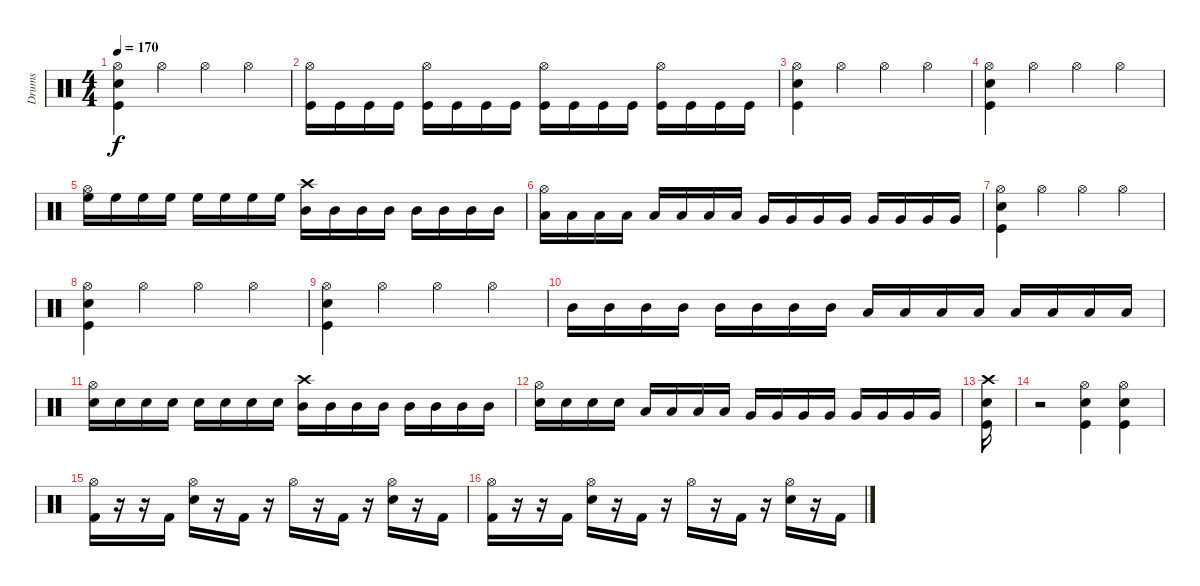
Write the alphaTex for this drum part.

\track ("Drums" "Drums") {instrument percussion}
\staff {score}
\articulation defaults
\ts (4 4)
\tempo 170
\clef neutral
\ks c
("Hi-Hat (open)" "Electric Snare (hit)" "Kick (hit)").4{dy f} "Hi-Hat (open)".4 "Hi-Hat (open)".4 "Hi-Hat (open)".4 |
("Hi-Hat (open)" "Kick (hit)").16 "Kick (hit)".16 "Kick (hit)".16 "Kick (hit)".16 ("Hi-Hat (open)" "Kick (hit)").16 "Kick (hit)".16 "Kick (hit)".16 "Kick (hit)".16 ("Hi-Hat (open)" "Kick (hit)").16 "Kick (hit)".16 "Kick (hit)".16 "Kick (hit)".16 ("Hi-Hat (open)" "Kick (hit)").16 "Kick (hit)".16 "Kick (hit)".16 "Kick (hit)".16 |
("Hi-Hat (open)" "Electric Snare (hit)" "Kick (hit)").4 "Hi-Hat (open)".4 "Hi-Hat (open)".4 "Hi-Hat (open)".4 |
("Hi-Hat (open)" "Electric Snare (hit)" "Kick (hit)").4 "Hi-Hat (open)".4 "Hi-Hat (open)".4 "Hi-Hat (open)".4 |
("Hi-Hat (open)" "High Floor Tom (hit)").16 "High Floor Tom (hit)".16 "High Floor Tom (hit)".16 "High Floor Tom (hit)".16 "High Floor Tom (hit)".16 "High Floor Tom (hit)".16 "High Floor Tom (hit)".16 "High Floor Tom (hit)".16 ("Crash high (hit)" "Mid Tom (hit)").16 "Mid Tom (hit)".16 "Mid Tom (hit)".16 "Mid Tom (hit)".16 "Mid Tom (hit)".16 "Mid Tom (hit)".16 "Mid Tom (hit)".16 "Mid Tom (hit)".16 |
("Hi-Hat (open)" "Low Tom (hit)").16 "Low Tom (hit)".16 "Low Tom (hit)".16 "Low Tom (hit)".16 "Low Tom (hit)".16 "Low Tom (hit)".16 "Low Tom (hit)".16 "Low Tom (hit)".16 "Very Low Tom (hit)".16 "Very Low Tom (hit)".16 "Very Low Tom (hit)".16 "Very Low Tom (hit)".16 "Very Low Tom (hit)".16 "Very Low Tom (hit)".16 "Very Low Tom (hit)".16 "Very Low Tom (hit)".16 |
("Hi-Hat (open)" "Electric Snare (hit)" "Kick (hit)").4 "Hi-Hat (open)".4 "Hi-Hat (open)".4 "Hi-Hat (open)".4 |
("Hi-Hat (open)" "Electric Snare (hit)" "Kick (hit)").4 "Hi-Hat (open)".4 "Hi-Hat (open)".4 "Hi-Hat (open)".4 |
("Hi-Hat (open)" "Electric Snare (hit)" "Kick (hit)").4 "Hi-Hat (open)".4 "Hi-Hat (open)".4 "Hi-Hat (open)".4 |
"Mid Tom (hit)".16 "Mid Tom (hit)".16 "Mid Tom (hit)".16 "Mid Tom (hit)".16 "Mid Tom (hit)".16 "Mid Tom (hit)".16 "Mid Tom (hit)".16 "Mid Tom (hit)".16 "Low Floor Tom (hit)".16 "Low Floor Tom (hit)".16 "Low Floor Tom (hit)".16 "Low Floor Tom (hit)".16 "Low Floor Tom (hit)".16 "Low Floor Tom (hit)".16 "Low Floor Tom (hit)".16 "Low Floor Tom (hit)".16 |
("Hi-Hat (open)" "Electric Snare (hit)").16 "Electric Snare (hit)".16 "Electric Snare (hit)".16 "Electric Snare (hit)".16 "Electric Snare (hit)".16 "Electric Snare (hit)".16 "Electric Snare (hit)".16 "Electric Snare (hit)".16 ("Crash high (hit)" "Mid Tom (hit)").16 "Mid Tom (hit)".16 "Mid Tom (hit)".16 "Mid Tom (hit)".16 "Mid Tom (hit)".16 "Mid Tom (hit)".16 "Mid Tom (hit)".16 "Mid Tom (hit)".16 |
("Hi-Hat (open)" "Electric Snare (hit)").16 "Electric Snare (hit)".16 "Electric Snare (hit)".16 "Electric Snare (hit)".16 "Low Tom (hit)".16 "Low Tom (hit)".16 "Low Tom (hit)".16 "Low Tom (hit)".16 "Very Low Tom (hit)".16 "Very Low Tom (hit)".16 "Very Low Tom (hit)".16 "Very Low Tom (hit)".16 "Very Low Tom (hit)".16 "Very Low Tom (hit)".16 "Very Low Tom (hit)".16 "Very Low Tom (hit)".16 |
("Crash high (hit)" "Electric Snare (hit)" "Kick (hit)").16 |
r.2 ("Hi-Hat (open)" "Electric Snare (hit)" "Kick (hit)").4 ("Hi-Hat (open)" "Electric Snare (hit)" "Kick (hit)").4 |
("Hi-Hat (open)" "Kick (hit) 2").16 r.16 r.16 "Kick (hit) 2".16 ("Hi-Hat (open)" "Electric Snare (hit)").16 r.16 "Kick (hit) 2".16 r.16 "Hi-Hat (open)".16 r.16 "Kick (hit) 2".16 r.16 ("Hi-Hat (open)" "Electric Snare (hit)").16 r.16 "Kick (hit) 2".16 |
("Hi-Hat (open)" "Kick (hit) 2").16 r.16 r.16 "Kick (hit) 2".16 ("Hi-Hat (open)" "Electric Snare (hit)").16 r.16 "Kick (hit) 2".16 r.16 "Hi-Hat (open)".16 r.16 "Kick (hit) 2".16 r.16 ("Hi-Hat (open)" "Electric Snare (hit)").16 r.16 "Kick (hit) 2".16
